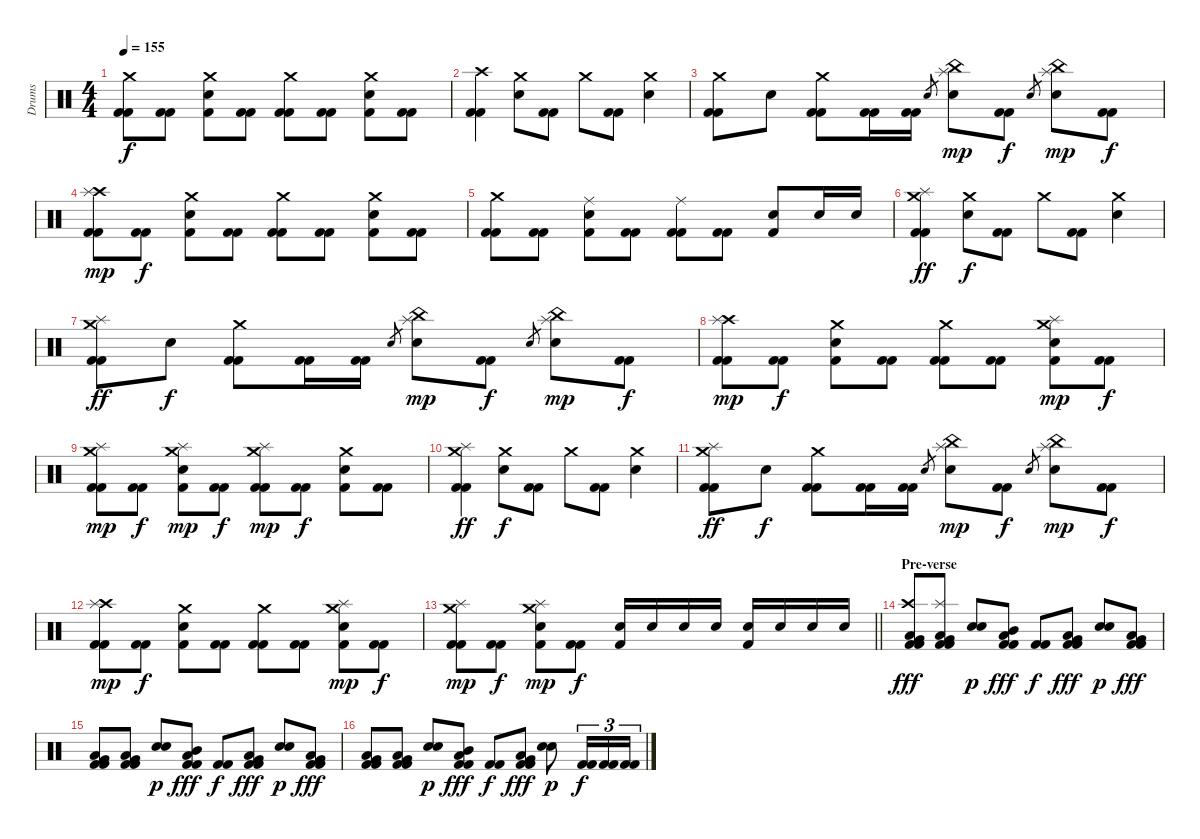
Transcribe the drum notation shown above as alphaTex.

\track ("Drums" "Drums") {instrument percussion}
\staff {score}
\articulation defaults
\ts (4 4)
\tempo 155
\clef neutral
\ks c
("Crash medium (hit)" "Kick (hit) 2" "Kick (hit) 2").8{dy f} ("Kick (hit) 2" "Kick (hit) 2").8 ("Crash medium (hit)" "Electric Snare (hit)" "Kick (hit) 2").8 ("Kick (hit) 2" "Kick (hit) 2").8 ("Crash medium (hit)" "Kick (hit) 2" "Kick (hit) 2").8 ("Kick (hit) 2" "Kick (hit) 2").8 ("Crash medium (hit)" "Electric Snare (hit)" "Kick (hit) 2").8 ("Kick (hit) 2" "Kick (hit) 2").8 |
("Crash high (hit)" "Kick (hit) 2" "Kick (hit) 2").4 ("Crash medium (hit)" "Electric Snare (hit)").8 ("Kick (hit) 2" "Kick (hit) 2").8 "Crash medium (hit)".8 ("Kick (hit) 2" "Kick (hit) 2").8 ("Crash medium (hit)" "Electric Snare (hit)").4 |
("Crash medium (hit)" "Kick (hit) 2" "Kick (hit) 2").8 "Electric Snare (hit)".8 ("Crash medium (hit)" "Kick (hit) 2" "Kick (hit) 2").8 ("Kick (hit) 2" "Kick (hit) 2").16 ("Kick (hit) 2" "Kick (hit) 2").16 "Electric Snare (hit)".8{gr} ("Splash (hit)" "China (hit)" "Electric Snare (hit)").8{dy mp} ("Kick (hit) 2" "Kick (hit) 2").8{dy f} "Electric Snare (hit)".8{gr} ("Splash (hit)" "China (hit)" "Electric Snare (hit)").8{dy mp} ("Kick (hit) 2" "Kick (hit) 2").8{dy f} |
("Crash high (hit)" "Splash (hit)" "Kick (hit) 2" "Kick (hit) 2").8{dy mp} ("Kick (hit) 2" "Kick (hit) 2").8{dy f} ("Crash medium (hit)" "Electric Snare (hit)" "Kick (hit) 2").8 ("Kick (hit) 2" "Kick (hit) 2").8 ("Crash medium (hit)" "Kick (hit) 2" "Kick (hit) 2").8 ("Kick (hit) 2" "Kick (hit) 2").8 ("Crash medium (hit)" "Electric Snare (hit)" "Kick (hit) 2").8 ("Kick (hit) 2" "Kick (hit) 2").8 |
("Crash medium (hit)" "Kick (hit) 2" "Kick (hit) 2").8 ("Kick (hit) 2" "Kick (hit) 2").8 ("Ride (middle)" "Electric Snare (hit)" "Kick (hit) 2").8 ("Kick (hit) 2" "Kick (hit) 2").8 ("Ride (middle)" "Kick (hit) 2" "Kick (hit) 2").8 ("Kick (hit) 2" "Kick (hit) 2").8 ("Electric Snare (hit)" "Kick (hit) 2").8 "Electric Snare (hit)".16 "Electric Snare (hit)".16 |
("Crash medium (hit)" "Splash (hit)" "Kick (hit) 2" "Kick (hit) 2").4{dy ff} ("Crash medium (hit)" "Electric Snare (hit)").8{dy f} ("Kick (hit) 2" "Kick (hit) 2").8 "Crash medium (hit)".8 ("Kick (hit) 2" "Kick (hit) 2").8 ("Crash medium (hit)" "Electric Snare (hit)").4 |
("Crash medium (hit)" "Splash (hit)" "Kick (hit) 2" "Kick (hit) 2").8{dy ff} "Electric Snare (hit)".8{dy f} ("Crash medium (hit)" "Kick (hit) 2" "Kick (hit) 2").8 ("Kick (hit) 2" "Kick (hit) 2").16 ("Kick (hit) 2" "Kick (hit) 2").16 "Electric Snare (hit)".8{gr} ("Splash (hit)" "China (hit)" "Electric Snare (hit)").8{dy mp} ("Kick (hit) 2" "Kick (hit) 2").8{dy f} "Electric Snare (hit)".8{gr} ("Splash (hit)" "China (hit)" "Electric Snare (hit)").8{dy mp} ("Kick (hit) 2" "Kick (hit) 2").8{dy f} |
("Crash high (hit)" "Splash (hit)" "Kick (hit) 2" "Kick (hit) 2").8{dy mp} ("Kick (hit) 2" "Kick (hit) 2").8{dy f} ("Crash medium (hit)" "Electric Snare (hit)" "Kick (hit) 2").8 ("Kick (hit) 2" "Kick (hit) 2").8 ("Crash medium (hit)" "Kick (hit) 2" "Kick (hit) 2").8 ("Kick (hit) 2" "Kick (hit) 2").8 ("Crash medium (hit)" "Splash (hit)" "Electric Snare (hit)" "Kick (hit) 2").8{dy mp} ("Kick (hit) 2" "Kick (hit) 2").8{dy f} |
("Crash medium (hit)" "Splash (hit)" "Kick (hit) 2" "Kick (hit) 2").8{dy mp} ("Kick (hit) 2" "Kick (hit) 2").8{dy f} ("Crash medium (hit)" "Splash (hit)" "Electric Snare (hit)" "Kick (hit) 2").8{dy mp} ("Kick (hit) 2" "Kick (hit) 2").8{dy f} ("Crash medium (hit)" "Splash (hit)" "Kick (hit) 2" "Kick (hit) 2").8{dy mp} ("Kick (hit) 2" "Kick (hit) 2").8{dy f} ("Crash medium (hit)" "Electric Snare (hit)" "Kick (hit) 2").8 ("Kick (hit) 2" "Kick (hit) 2").8 |
("Crash medium (hit)" "Splash (hit)" "Kick (hit) 2" "Kick (hit) 2").4{dy ff} ("Crash medium (hit)" "Electric Snare (hit)").8{dy f} ("Kick (hit) 2" "Kick (hit) 2").8 "Crash medium (hit)".8 ("Kick (hit) 2" "Kick (hit) 2").8 ("Crash medium (hit)" "Electric Snare (hit)").4 |
("Crash medium (hit)" "Splash (hit)" "Kick (hit) 2" "Kick (hit) 2").8{dy ff} "Electric Snare (hit)".8{dy f} ("Crash medium (hit)" "Kick (hit) 2" "Kick (hit) 2").8 ("Kick (hit) 2" "Kick (hit) 2").16 ("Kick (hit) 2" "Kick (hit) 2").16 "Electric Snare (hit)".8{gr} ("Splash (hit)" "China (hit)" "Electric Snare (hit)").8{dy mp} ("Kick (hit) 2" "Kick (hit) 2").8{dy f} "Electric Snare (hit)".8{gr} ("Splash (hit)" "China (hit)" "Electric Snare (hit)").8{dy mp} ("Kick (hit) 2" "Kick (hit) 2").8{dy f} |
("Crash high (hit)" "Splash (hit)" "Kick (hit) 2" "Kick (hit) 2").8{dy mp} ("Kick (hit) 2" "Kick (hit) 2").8{dy f} ("Crash medium (hit)" "Electric Snare (hit)" "Kick (hit) 2").8 ("Kick (hit) 2" "Kick (hit) 2").8 ("Crash medium (hit)" "Kick (hit) 2" "Kick (hit) 2").8 ("Kick (hit) 2" "Kick (hit) 2").8 ("Crash medium (hit)" "Splash (hit)" "Electric Snare (hit)" "Kick (hit) 2").8{dy mp} ("Kick (hit) 2" "Kick (hit) 2").8{dy f} |
\barLineRight lightlight
("Crash medium (hit)" "Splash (hit)" "Kick (hit) 2" "Kick (hit) 2").8{dy mp} ("Kick (hit) 2" "Kick (hit) 2").8{dy f} ("Crash medium (hit)" "Splash (hit)" "Electric Snare (hit)" "Kick (hit) 2").8{dy mp} ("Kick (hit) 2" "Kick (hit) 2").8{dy f} ("Electric Snare (hit)" "Kick (hit) 2").16 "Electric Snare (hit)".16 "Electric Snare (hit)".16 "Electric Snare (hit)".16 ("Electric Snare (hit)" "Kick (hit) 2").16 "Electric Snare (hit)".16 "Electric Snare (hit)".16 "Electric Snare (hit)".16 |
\section ("" "Pre-verse")
("Crash high (hit)" "Very Low Tom (hit)" "Low Floor Tom (hit)" "Kick (hit) 2" "Kick (hit) 2").8{dy fff} ("Splash (hit)" "Very Low Tom (hit)" "Low Floor Tom (hit)" "Kick (hit) 2" "Kick (hit) 2").8 ("Snare (hit) 2" "Electric Snare (hit)").8{dy p} ("Mid Tom (hit)" "Low Tom (hit)" "Kick (hit) 2" "Kick (hit) 2").8{dy fff} ("Kick (hit) 2" "Kick (hit) 2").8{dy f} ("Low Tom (hit)" "Very Low Tom (hit)" "Kick (hit) 2" "Kick (hit) 2").8{dy fff} ("Snare (hit) 2" "Electric Snare (hit)").8{dy p} ("Very Low Tom (hit)" "Low Floor Tom (hit)" "Kick (hit) 2" "Kick (hit) 2").8{dy fff} |
("Very Low Tom (hit)" "Low Floor Tom (hit)" "Kick (hit) 2" "Kick (hit) 2").8 ("Very Low Tom (hit)" "Low Floor Tom (hit)" "Kick (hit) 2" "Kick (hit) 2").8 ("Snare (hit) 2" "Electric Snare (hit)").8{dy p} ("Mid Tom (hit)" "Low Tom (hit)" "Kick (hit) 2" "Kick (hit) 2").8{dy fff} ("Kick (hit) 2" "Kick (hit) 2").8{dy f} ("Low Tom (hit)" "Very Low Tom (hit)" "Kick (hit) 2" "Kick (hit) 2").8{dy fff} ("Snare (hit) 2" "Electric Snare (hit)").8{dy p} ("Very Low Tom (hit)" "Low Floor Tom (hit)" "Kick (hit) 2" "Kick (hit) 2").8{dy fff} |
("Very Low Tom (hit)" "Low Floor Tom (hit)" "Kick (hit) 2" "Kick (hit) 2").8 ("Very Low Tom (hit)" "Low Floor Tom (hit)" "Kick (hit) 2" "Kick (hit) 2").8 ("Snare (hit) 2" "Electric Snare (hit)").8{dy p} ("Mid Tom (hit)" "Low Tom (hit)" "Kick (hit) 2" "Kick (hit) 2").8{dy fff} ("Kick (hit) 2" "Kick (hit) 2").8{dy f} ("Low Tom (hit)" "Very Low Tom (hit)" "Kick (hit) 2" "Kick (hit) 2").8{dy fff} ("Snare (hit) 2" "Electric Snare (hit)").8{dy p} ("Kick (hit) 2" "Kick (hit) 2").16{tu (3 2) dy f} ("Kick (hit) 2" "Kick (hit) 2").16{tu (3 2)} ("Kick (hit) 2" "Kick (hit) 2").16{tu (3 2)}
